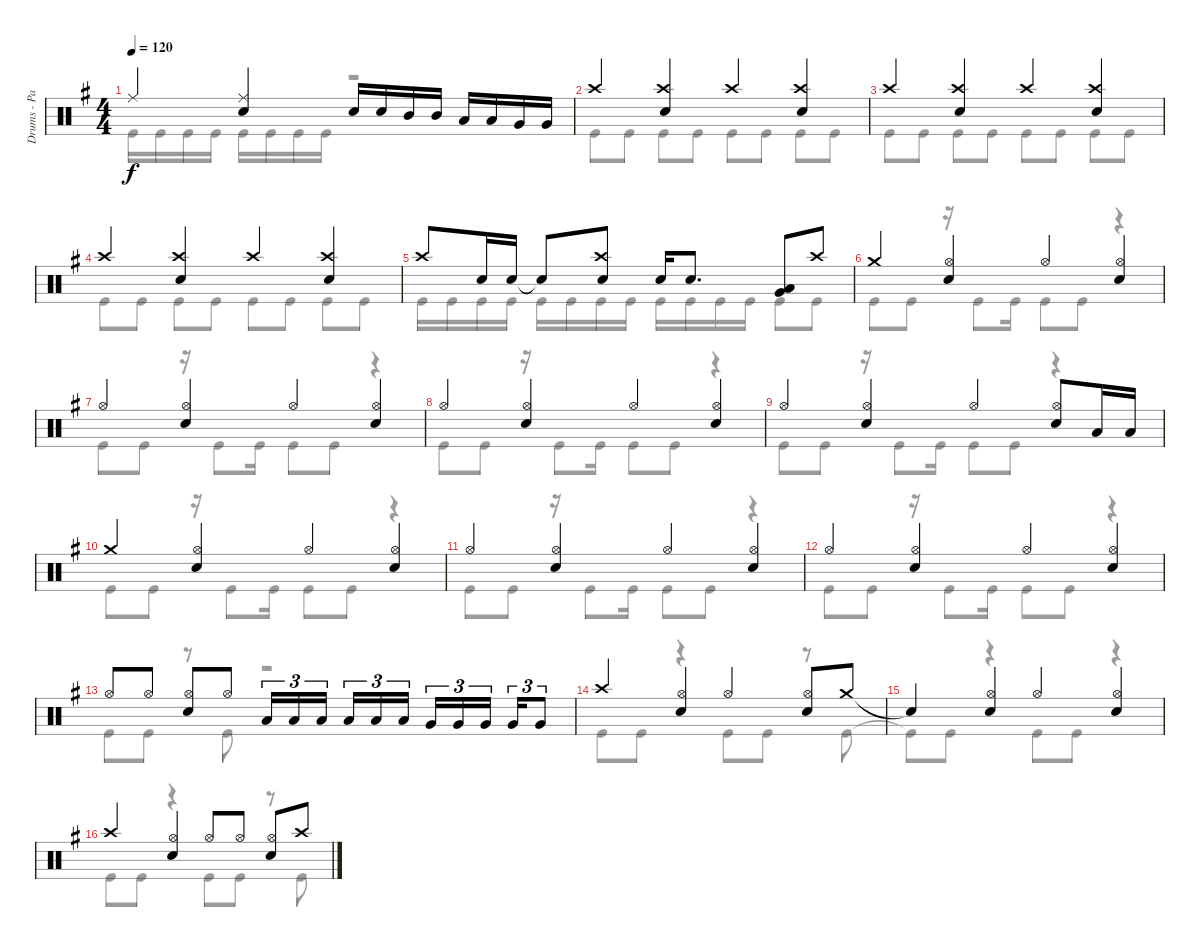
\track ("Drums - Patrick Johansson" "Drums - Pa") {instrument percussion}
\staff {score}
\articulation defaults
\voice
\ts (4 4)
\tempo 120
\clef neutral
\ks eminor "Ride (middle)".4{dy f}
("Ride (middle)" "Snare (hit) 2").4 "Snare (hit) 2".16 "Snare (hit) 2".16 "Mid Tom (hit)".16 "Mid Tom (hit)".16 "Low Tom (hit)".16 "Low Tom (hit)".16 "Very Low Tom (hit)".16 "Very Low Tom (hit)".16 |
"Crash high (hit)".4 ("Crash high (hit)" "Snare (hit) 2").4 "Crash high (hit)".4 ("Crash high (hit)" "Snare (hit) 2").4 |
"Crash high (hit)".4 ("Crash high (hit)" "Snare (hit) 2").4 "Crash high (hit)".4 ("Crash high (hit)" "Snare (hit) 2").4 |
"Crash high (hit)".4 ("Crash high (hit)" "Snare (hit) 2").4 "Crash high (hit)".4 ("Crash high (hit)" "Snare (hit) 2").4 |
"Crash high (hit)".8 "Snare (hit) 2".16 "Snare (hit) 2".16 "Snare (hit) 2"{t}.8 ("Crash high (hit)" "Snare (hit) 2").8 "Snare (hit) 2".16 "Snare (hit) 2".8{d} ("Low Tom (hit)" "Very Low Tom (hit)").8 "Crash high (hit)".8 |
"Crash medium (hit)".4 ("Hi-Hat (open)" "Snare (hit) 2").4 "Hi-Hat (open)".4 ("Hi-Hat (open)" "Snare (hit) 2").4 |
"Hi-Hat (open)".4 ("Hi-Hat (open)" "Snare (hit) 2").4 "Hi-Hat (open)".4 ("Hi-Hat (open)" "Snare (hit) 2").4 |
"Hi-Hat (open)".4 ("Hi-Hat (open)" "Snare (hit) 2").4 "Hi-Hat (open)".4 ("Hi-Hat (open)" "Snare (hit) 2").4 |
"Hi-Hat (open)".4 ("Hi-Hat (open)" "Snare (hit) 2").4 "Hi-Hat (open)".4 ("Hi-Hat (open)" "Snare (hit) 2").8 "Low Tom (hit)".16 "Low Tom (hit)".16 |
"Crash medium (hit)".4 ("Hi-Hat (open)" "Snare (hit) 2").4 "Hi-Hat (open)".4 ("Hi-Hat (open)" "Snare (hit) 2").4 |
"Hi-Hat (open)".4 ("Hi-Hat (open)" "Snare (hit) 2").4 "Hi-Hat (open)".4 ("Hi-Hat (open)" "Snare (hit) 2").4 |
"Hi-Hat (open)".4 ("Hi-Hat (open)" "Snare (hit) 2").4 "Hi-Hat (open)".4 ("Hi-Hat (open)" "Snare (hit) 2").4 |
"Hi-Hat (open)".8 "Hi-Hat (open)".8 ("Hi-Hat (open)" "Snare (hit) 2").8 "Hi-Hat (open)".8 "Low Tom (hit)".16{tu (3 2)} "Low Tom (hit)".16{tu (3 2)} "Low Tom (hit)".16{tu (3 2) beam splitsecondary} "Low Tom (hit)".16{tu (3 2)} "Low Tom (hit)".16{tu (3 2)} "Low Tom (hit)".16{tu (3 2)} "Very Low Tom (hit)".16{tu (3 2)} "Very Low Tom (hit)".16{tu (3 2)} "Very Low Tom (hit)".16{tu (3 2) beam splitsecondary} "Very Low Tom (hit)".16{tu (3 2)} "Very Low Tom (hit)".8{tu (3 2)} |
"Crash high (hit)".4 ("Hi-Hat (open)" "Snare (hit) 2").4 "Hi-Hat (open)".4 ("Hi-Hat (open)" "Snare (hit) 2").8 "Crash medium (hit)".8 |
"Snare (hit)"{t}.4 ("Hi-Hat (open)" "Snare (hit) 2").4 "Hi-Hat (open)".4 ("Hi-Hat (open)" "Snare (hit) 2").4 |
"Crash high (hit)".4 ("Hi-Hat (open)" "Snare (hit) 2").4 "Hi-Hat (open)".8 "Hi-Hat (open)".8 ("Hi-Hat (open)" "Snare (hit) 2").8 "Crash high (hit)".8
\voice
\clef neutral
\ottava regular
\simile none
\ks eminor "Kick (hit)".16{dy f} "Kick (hit)".16 "Kick (hit)".16 "Kick (hit)".16 "Kick (hit)".16 "Kick (hit)".16 "Kick (hit)".16 "Kick (hit)".16
r.2 |
"Kick (hit)".8 "Kick (hit)".8 "Kick (hit)".8 "Kick (hit)".8 "Kick (hit)".8 "Kick (hit)".8 "Kick (hit)".8 "Kick (hit)".8 |
"Kick (hit)".8 "Kick (hit)".8 "Kick (hit)".8 "Kick (hit)".8 "Kick (hit)".8 "Kick (hit)".8 "Kick (hit)".8 "Kick (hit)".8 |
"Kick (hit)".8 "Kick (hit)".8 "Kick (hit)".8 "Kick (hit)".8 "Kick (hit)".8 "Kick (hit)".8 "Kick (hit)".8 "Kick (hit)".8 |
"Kick (hit)".16 "Kick (hit)".16 "Kick (hit)".16 "Kick (hit)".16 "Kick (hit)".16 "Kick (hit)".16 "Kick (hit)".16 "Kick (hit)".16 "Kick (hit)".16 "Kick (hit)".16 "Kick (hit)".16 "Kick (hit)".16 "Kick (hit)".8 "Kick (hit)".8 |
"Kick (hit)".8 "Kick (hit)".8 r.16 "Kick (hit)".8 "Kick (hit)".16 "Kick (hit)".8 "Kick (hit)".8 r.4 |
"Kick (hit)".8 "Kick (hit)".8 r.16 "Kick (hit)".8 "Kick (hit)".16 "Kick (hit)".8 "Kick (hit)".8 r.4 |
"Kick (hit)".8 "Kick (hit)".8 r.16 "Kick (hit)".8 "Kick (hit)".16 "Kick (hit)".8 "Kick (hit)".8 r.4 |
"Kick (hit)".8 "Kick (hit)".8 r.16 "Kick (hit)".8 "Kick (hit)".16 "Kick (hit)".8 "Kick (hit)".8 r.4 |
"Kick (hit)".8 "Kick (hit)".8 r.16 "Kick (hit)".8 "Kick (hit)".16 "Kick (hit)".8 "Kick (hit)".8 r.4 |
"Kick (hit)".8 "Kick (hit)".8 r.16 "Kick (hit)".8 "Kick (hit)".16 "Kick (hit)".8 "Kick (hit)".8 r.4 |
"Kick (hit)".8 "Kick (hit)".8 r.16 "Kick (hit)".8 "Kick (hit)".16 "Kick (hit)".8 "Kick (hit)".8 r.4 |
"Kick (hit)".8 "Kick (hit)".8 r.8 "Kick (hit)".8 r.2 |
"Kick (hit)".8 "Kick (hit)".8 r.4 "Kick (hit)".8 "Kick (hit)".8 r.8 "Kick (hit)".8 |
"Kick (hit)"{t}.8 "Kick (hit)".8 r.4 "Kick (hit)".8 "Kick (hit)".8 r.4 |
"Kick (hit)".8 "Kick (hit)".8 r.4 "Kick (hit)".8 "Kick (hit)".8 r.8 "Kick (hit)".8
